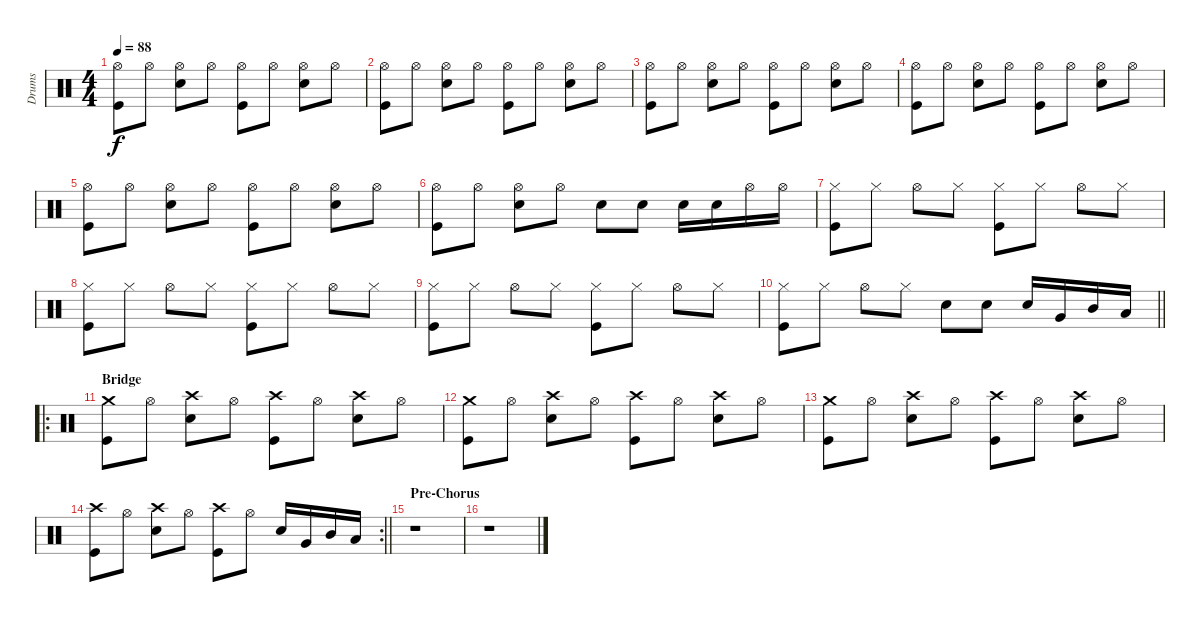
\track ("Drums" "Drums") {instrument percussion}
\staff {score}
\articulation defaults
\ts (4 4)
\tempo 88
\clef neutral
\ks c
("Kick (hit)" "Hi-Hat (open)").8{dy f} "Hi-Hat (open)".8 ("Hi-Hat (open)" "Snare (hit) 2").8 "Hi-Hat (open)".8 ("Kick (hit)" "Hi-Hat (open)").8 "Hi-Hat (open)".8 ("Hi-Hat (open)" "Snare (hit) 2").8 "Hi-Hat (open)".8 |
("Kick (hit)" "Hi-Hat (open)").8 "Hi-Hat (open)".8 ("Hi-Hat (open)" "Snare (hit) 2").8 "Hi-Hat (open)".8 ("Kick (hit)" "Hi-Hat (open)").8 "Hi-Hat (open)".8 ("Hi-Hat (open)" "Snare (hit) 2").8 "Hi-Hat (open)".8 |
("Kick (hit)" "Hi-Hat (open)").8 "Hi-Hat (open)".8 ("Hi-Hat (open)" "Snare (hit) 2").8 "Hi-Hat (open)".8 ("Kick (hit)" "Hi-Hat (open)").8 "Hi-Hat (open)".8 ("Hi-Hat (open)" "Snare (hit) 2").8 "Hi-Hat (open)".8 |
("Kick (hit)" "Hi-Hat (open)").8 "Hi-Hat (open)".8 ("Hi-Hat (open)" "Snare (hit) 2").8 "Hi-Hat (open)".8 ("Kick (hit)" "Hi-Hat (open)").8 "Hi-Hat (open)".8 ("Hi-Hat (open)" "Snare (hit) 2").8 "Hi-Hat (open)".8 |
("Kick (hit)" "Hi-Hat (open)").8 "Hi-Hat (open)".8 ("Hi-Hat (open)" "Snare (hit) 2").8 "Hi-Hat (open)".8 ("Kick (hit)" "Hi-Hat (open)").8 "Hi-Hat (open)".8 ("Hi-Hat (open)" "Snare (hit) 2").8 "Hi-Hat (open)".8 |
("Kick (hit)" "Hi-Hat (open)").8 "Hi-Hat (open)".8 ("Hi-Hat (open)" "Snare (hit) 2").8 "Hi-Hat (open)".8 "Snare (hit) 2".8 "Snare (hit) 2".8 "Snare (hit) 2".16 "Snare (hit) 2".16 "Hi-Hat (open)".16 "Hi-Hat (open)".16 |
("Hi-Hat (closed)" "Kick (hit)").8 "Hi-Hat (closed)".8 "Hi-Hat (open)".8 "Hi-Hat (closed)".8 ("Hi-Hat (closed)" "Kick (hit)").8 "Hi-Hat (closed)".8 "Hi-Hat (open)".8 "Hi-Hat (closed)".8 |
("Hi-Hat (closed)" "Kick (hit)").8 "Hi-Hat (closed)".8 "Hi-Hat (open)".8 "Hi-Hat (closed)".8 ("Hi-Hat (closed)" "Kick (hit)").8 "Hi-Hat (closed)".8 "Hi-Hat (open)".8 "Hi-Hat (closed)".8 |
("Hi-Hat (closed)" "Kick (hit)").8 "Hi-Hat (closed)".8 "Hi-Hat (open)".8 "Hi-Hat (closed)".8 ("Hi-Hat (closed)" "Kick (hit)").8 "Hi-Hat (closed)".8 "Hi-Hat (open)".8 "Hi-Hat (closed)".8 |
\barLineRight lightlight
("Hi-Hat (closed)" "Kick (hit)").8 "Hi-Hat (closed)".8 "Hi-Hat (open)".8 "Hi-Hat (closed)".8 "Snare (hit) 2".8 "Snare (hit) 2".8 "Snare (hit) 2".16 "Very Low Tom (hit)".16 "Mid Tom (hit)".16 "Low Tom (hit)".16 |
\ro
\section ("" "Bridge")
("Kick (hit)" "Crash medium (hit)").8 "Hi-Hat (open)".8 ("Snare (hit) 2" "Crash high (hit)").8 "Hi-Hat (open)".8 ("Kick (hit)" "Crash high (hit)").8 "Hi-Hat (open)".8 ("Snare (hit) 2" "Crash high (hit)").8 "Hi-Hat (open)".8 |
("Kick (hit)" "Crash medium (hit)").8 "Hi-Hat (open)".8 ("Snare (hit) 2" "Crash high (hit)").8 "Hi-Hat (open)".8 ("Kick (hit)" "Crash high (hit)").8 "Hi-Hat (open)".8 ("Snare (hit) 2" "Crash high (hit)").8 "Hi-Hat (open)".8 |
("Kick (hit)" "Crash medium (hit)").8 "Hi-Hat (open)".8 ("Snare (hit) 2" "Crash high (hit)").8 "Hi-Hat (open)".8 ("Kick (hit)" "Crash high (hit)").8 "Hi-Hat (open)".8 ("Snare (hit) 2" "Crash high (hit)").8 "Hi-Hat (open)".8 |
\rc 2
\barLineRight lightlight
("Kick (hit)" "Crash high (hit)").8 "Hi-Hat (open)".8 ("Snare (hit) 2" "Crash high (hit)").8 "Hi-Hat (open)".8 ("Kick (hit)" "Crash high (hit)").8 "Hi-Hat (open)".8 "Snare (hit) 2".16 "Very Low Tom (hit)".16 "Mid Tom (hit)".16 "Low Tom (hit)".16 |
\section ("" "Pre-Chorus")
r.1 |
r.1
